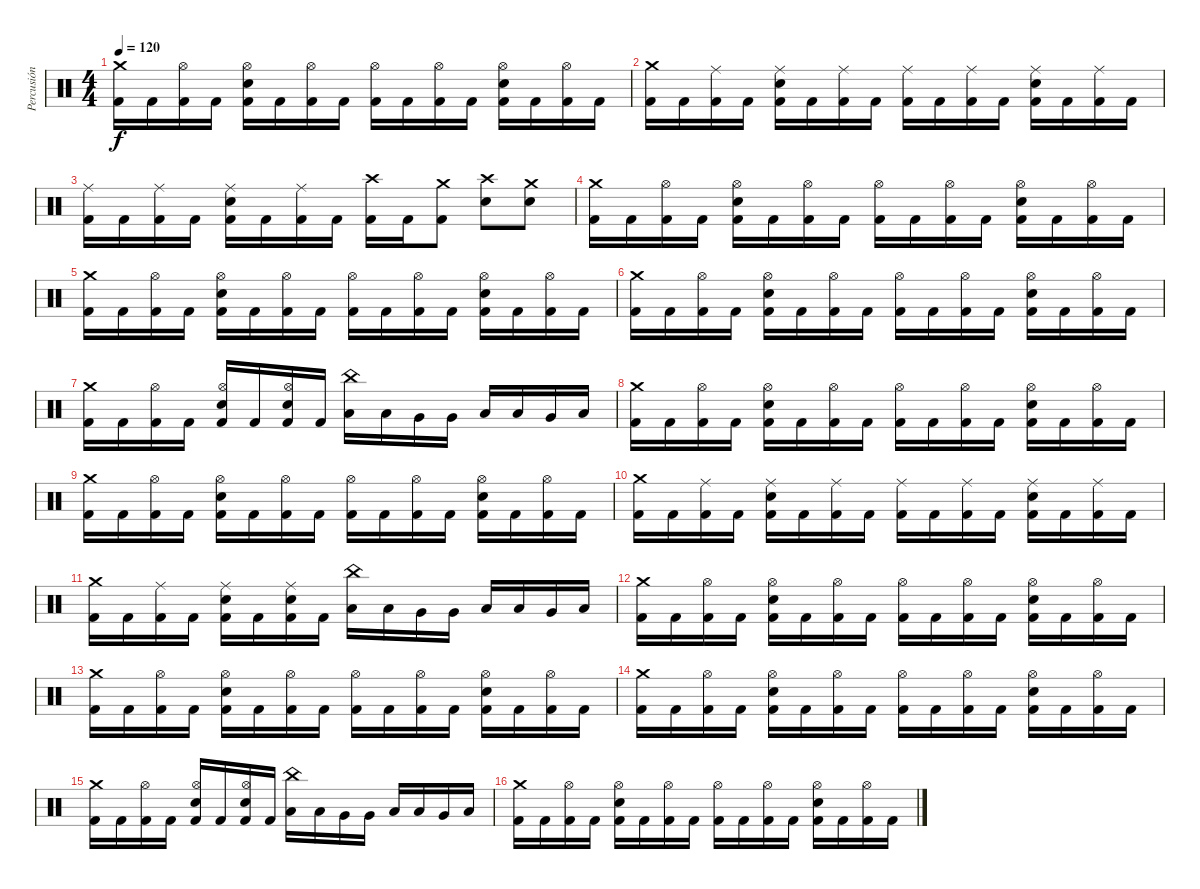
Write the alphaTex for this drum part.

\track ("Percusión" "Percusión") {instrument percussion}
\staff {score}
\articulation defaults
\ts (4 4)
\tempo 120
\clef neutral
\ks c
("Crash medium (hit)" "Kick (hit) 2").16{dy f} "Kick (hit) 2".16 ("Hi-Hat (open)" "Kick (hit) 2").16 "Kick (hit) 2".16 ("Hi-Hat (open)" "Electric Snare (hit)" "Kick (hit) 2").16 "Kick (hit) 2".16 ("Hi-Hat (open)" "Kick (hit) 2").16 "Kick (hit) 2".16 ("Hi-Hat (open)" "Kick (hit) 2").16 "Kick (hit) 2".16 ("Hi-Hat (open)" "Kick (hit) 2").16 "Kick (hit) 2".16 ("Hi-Hat (open)" "Electric Snare (hit)" "Kick (hit) 2").16 "Kick (hit) 2".16 ("Hi-Hat (open)" "Kick (hit) 2").16 "Kick (hit) 2".16 |
("Crash medium (hit)" "Kick (hit) 2").16 "Kick (hit) 2".16 ("Ride (middle)" "Kick (hit) 2").16 "Kick (hit) 2".16 ("Ride (middle)" "Electric Snare (hit)" "Kick (hit) 2").16 "Kick (hit) 2".16 ("Ride (middle)" "Kick (hit) 2").16 "Kick (hit) 2".16 ("Ride (middle)" "Kick (hit) 2").16 "Kick (hit) 2".16 ("Ride (middle)" "Kick (hit) 2").16 "Kick (hit) 2".16 ("Ride (middle)" "Electric Snare (hit)" "Kick (hit) 2").16 "Kick (hit) 2".16 ("Ride (middle)" "Kick (hit) 2").16 "Kick (hit) 2".16 |
("Ride (middle)" "Kick (hit) 2").16 "Kick (hit) 2".16 ("Ride (middle)" "Kick (hit) 2").16 "Kick (hit) 2".16 ("Ride (middle)" "Electric Snare (hit)" "Kick (hit) 2").16 "Kick (hit) 2".16 ("Ride (middle)" "Kick (hit) 2").16 "Kick (hit) 2".16 ("Crash high (hit)" "Kick (hit) 2").16 "Kick (hit) 2".16 ("Crash medium (hit)" "Kick (hit) 2").8 ("Crash high (hit)" "Electric Snare (hit)").8 ("Crash medium (hit)" "Electric Snare (hit)").8 |
("Crash medium (hit)" "Kick (hit) 2").16 "Kick (hit) 2".16 ("Hi-Hat (open)" "Kick (hit) 2").16 "Kick (hit) 2".16 ("Hi-Hat (open)" "Electric Snare (hit)" "Kick (hit) 2").16 "Kick (hit) 2".16 ("Hi-Hat (open)" "Kick (hit) 2").16 "Kick (hit) 2".16 ("Hi-Hat (open)" "Kick (hit) 2").16 "Kick (hit) 2".16 ("Hi-Hat (open)" "Kick (hit) 2").16 "Kick (hit) 2".16 ("Hi-Hat (open)" "Electric Snare (hit)" "Kick (hit) 2").16 "Kick (hit) 2".16 ("Hi-Hat (open)" "Kick (hit) 2").16 "Kick (hit) 2".16 |
("Crash medium (hit)" "Kick (hit) 2").16 "Kick (hit) 2".16 ("Hi-Hat (open)" "Kick (hit) 2").16 "Kick (hit) 2".16 ("Hi-Hat (open)" "Electric Snare (hit)" "Kick (hit) 2").16 "Kick (hit) 2".16 ("Hi-Hat (open)" "Kick (hit) 2").16 "Kick (hit) 2".16 ("Hi-Hat (open)" "Kick (hit) 2").16 "Kick (hit) 2".16 ("Hi-Hat (open)" "Kick (hit) 2").16 "Kick (hit) 2".16 ("Hi-Hat (open)" "Electric Snare (hit)" "Kick (hit) 2").16 "Kick (hit) 2".16 ("Hi-Hat (open)" "Kick (hit) 2").16 "Kick (hit) 2".16 |
("Crash medium (hit)" "Kick (hit) 2").16 "Kick (hit) 2".16 ("Hi-Hat (open)" "Kick (hit) 2").16 "Kick (hit) 2".16 ("Hi-Hat (open)" "Electric Snare (hit)" "Kick (hit) 2").16 "Kick (hit) 2".16 ("Hi-Hat (open)" "Kick (hit) 2").16 "Kick (hit) 2".16 ("Hi-Hat (open)" "Kick (hit) 2").16 "Kick (hit) 2".16 ("Hi-Hat (open)" "Kick (hit) 2").16 "Kick (hit) 2".16 ("Hi-Hat (open)" "Electric Snare (hit)" "Kick (hit) 2").16 "Kick (hit) 2".16 ("Hi-Hat (open)" "Kick (hit) 2").16 "Kick (hit) 2".16 |
("Crash medium (hit)" "Kick (hit) 2").16 "Kick (hit) 2".16 ("Hi-Hat (open)" "Kick (hit) 2").16 "Kick (hit) 2".16 ("Hi-Hat (open)" "Electric Snare (hit)" "Kick (hit) 2").16 "Kick (hit) 2".16 ("Hi-Hat (open)" "Electric Snare (hit)" "Kick (hit) 2").16 "Kick (hit) 2".16 ("China (hit)" "Low Tom (hit)").16 "Low Tom (hit)".16 "Very Low Tom (hit)".16 "Very Low Tom (hit)".16 "Low Floor Tom (hit)".16 "Low Floor Tom (hit)".16 "Very Low Tom (hit)".16 "Low Tom (hit)".16 |
("Crash medium (hit)" "Kick (hit) 2").16 "Kick (hit) 2".16 ("Hi-Hat (open)" "Kick (hit) 2").16 "Kick (hit) 2".16 ("Hi-Hat (open)" "Electric Snare (hit)" "Kick (hit) 2").16 "Kick (hit) 2".16 ("Hi-Hat (open)" "Kick (hit) 2").16 "Kick (hit) 2".16 ("Hi-Hat (open)" "Kick (hit) 2").16 "Kick (hit) 2".16 ("Hi-Hat (open)" "Kick (hit) 2").16 "Kick (hit) 2".16 ("Hi-Hat (open)" "Electric Snare (hit)" "Kick (hit) 2").16 "Kick (hit) 2".16 ("Hi-Hat (open)" "Kick (hit) 2").16 "Kick (hit) 2".16 |
("Crash medium (hit)" "Kick (hit) 2").16 "Kick (hit) 2".16 ("Hi-Hat (open)" "Kick (hit) 2").16 "Kick (hit) 2".16 ("Hi-Hat (open)" "Electric Snare (hit)" "Kick (hit) 2").16 "Kick (hit) 2".16 ("Hi-Hat (open)" "Kick (hit) 2").16 "Kick (hit) 2".16 ("Hi-Hat (open)" "Kick (hit) 2").16 "Kick (hit) 2".16 ("Hi-Hat (open)" "Kick (hit) 2").16 "Kick (hit) 2".16 ("Hi-Hat (open)" "Electric Snare (hit)" "Kick (hit) 2").16 "Kick (hit) 2".16 ("Hi-Hat (open)" "Kick (hit) 2").16 "Kick (hit) 2".16 |
("Crash medium (hit)" "Kick (hit) 2").16 "Kick (hit) 2".16 ("Ride (middle)" "Kick (hit) 2").16 "Kick (hit) 2".16 ("Ride (middle)" "Electric Snare (hit)" "Kick (hit) 2").16 "Kick (hit) 2".16 ("Ride (middle)" "Kick (hit) 2").16 "Kick (hit) 2".16 ("Ride (middle)" "Kick (hit) 2").16 "Kick (hit) 2".16 ("Ride (middle)" "Kick (hit) 2").16 "Kick (hit) 2".16 ("Ride (middle)" "Electric Snare (hit)" "Kick (hit) 2").16 "Kick (hit) 2".16 ("Ride (middle)" "Kick (hit) 2").16 "Kick (hit) 2".16 |
("Crash medium (hit)" "Kick (hit) 2").16 "Kick (hit) 2".16 ("Ride (middle)" "Kick (hit) 2").16 "Kick (hit) 2".16 ("Ride (middle)" "Electric Snare (hit)" "Kick (hit) 2").16 "Kick (hit) 2".16 ("Ride (middle)" "Electric Snare (hit)" "Kick (hit) 2").16 "Kick (hit) 2".16 ("China (hit)" "Low Tom (hit)").16 "Low Tom (hit)".16 "Very Low Tom (hit)".16 "Very Low Tom (hit)".16 "Low Floor Tom (hit)".16 "Low Floor Tom (hit)".16 "Very Low Tom (hit)".16 "Low Tom (hit)".16 |
("Crash medium (hit)" "Kick (hit) 2").16 "Kick (hit) 2".16 ("Hi-Hat (open)" "Kick (hit) 2").16 "Kick (hit) 2".16 ("Hi-Hat (open)" "Electric Snare (hit)" "Kick (hit) 2").16 "Kick (hit) 2".16 ("Hi-Hat (open)" "Kick (hit) 2").16 "Kick (hit) 2".16 ("Hi-Hat (open)" "Kick (hit) 2").16 "Kick (hit) 2".16 ("Hi-Hat (open)" "Kick (hit) 2").16 "Kick (hit) 2".16 ("Hi-Hat (open)" "Electric Snare (hit)" "Kick (hit) 2").16 "Kick (hit) 2".16 ("Hi-Hat (open)" "Kick (hit) 2").16 "Kick (hit) 2".16 |
("Crash medium (hit)" "Kick (hit) 2").16 "Kick (hit) 2".16 ("Hi-Hat (open)" "Kick (hit) 2").16 "Kick (hit) 2".16 ("Hi-Hat (open)" "Electric Snare (hit)" "Kick (hit) 2").16 "Kick (hit) 2".16 ("Hi-Hat (open)" "Kick (hit) 2").16 "Kick (hit) 2".16 ("Hi-Hat (open)" "Kick (hit) 2").16 "Kick (hit) 2".16 ("Hi-Hat (open)" "Kick (hit) 2").16 "Kick (hit) 2".16 ("Hi-Hat (open)" "Electric Snare (hit)" "Kick (hit) 2").16 "Kick (hit) 2".16 ("Hi-Hat (open)" "Kick (hit) 2").16 "Kick (hit) 2".16 |
("Crash medium (hit)" "Kick (hit) 2").16 "Kick (hit) 2".16 ("Hi-Hat (open)" "Kick (hit) 2").16 "Kick (hit) 2".16 ("Hi-Hat (open)" "Electric Snare (hit)" "Kick (hit) 2").16 "Kick (hit) 2".16 ("Hi-Hat (open)" "Kick (hit) 2").16 "Kick (hit) 2".16 ("Hi-Hat (open)" "Kick (hit) 2").16 "Kick (hit) 2".16 ("Hi-Hat (open)" "Kick (hit) 2").16 "Kick (hit) 2".16 ("Hi-Hat (open)" "Electric Snare (hit)" "Kick (hit) 2").16 "Kick (hit) 2".16 ("Hi-Hat (open)" "Kick (hit) 2").16 "Kick (hit) 2".16 |
("Crash medium (hit)" "Kick (hit) 2").16 "Kick (hit) 2".16 ("Hi-Hat (open)" "Kick (hit) 2").16 "Kick (hit) 2".16 ("Hi-Hat (open)" "Electric Snare (hit)" "Kick (hit) 2").16 "Kick (hit) 2".16 ("Hi-Hat (open)" "Electric Snare (hit)" "Kick (hit) 2").16 "Kick (hit) 2".16 ("China (hit)" "Low Tom (hit)").16 "Low Tom (hit)".16 "Very Low Tom (hit)".16 "Very Low Tom (hit)".16 "Low Floor Tom (hit)".16 "Low Floor Tom (hit)".16 "Very Low Tom (hit)".16 "Low Tom (hit)".16 |
("Crash medium (hit)" "Kick (hit) 2").16 "Kick (hit) 2".16 ("Hi-Hat (open)" "Kick (hit) 2").16 "Kick (hit) 2".16 ("Hi-Hat (open)" "Electric Snare (hit)" "Kick (hit) 2").16 "Kick (hit) 2".16 ("Hi-Hat (open)" "Kick (hit) 2").16 "Kick (hit) 2".16 ("Hi-Hat (open)" "Kick (hit) 2").16 "Kick (hit) 2".16 ("Hi-Hat (open)" "Kick (hit) 2").16 "Kick (hit) 2".16 ("Hi-Hat (open)" "Electric Snare (hit)" "Kick (hit) 2").16 "Kick (hit) 2".16 ("Hi-Hat (open)" "Kick (hit) 2").16 "Kick (hit) 2".16
